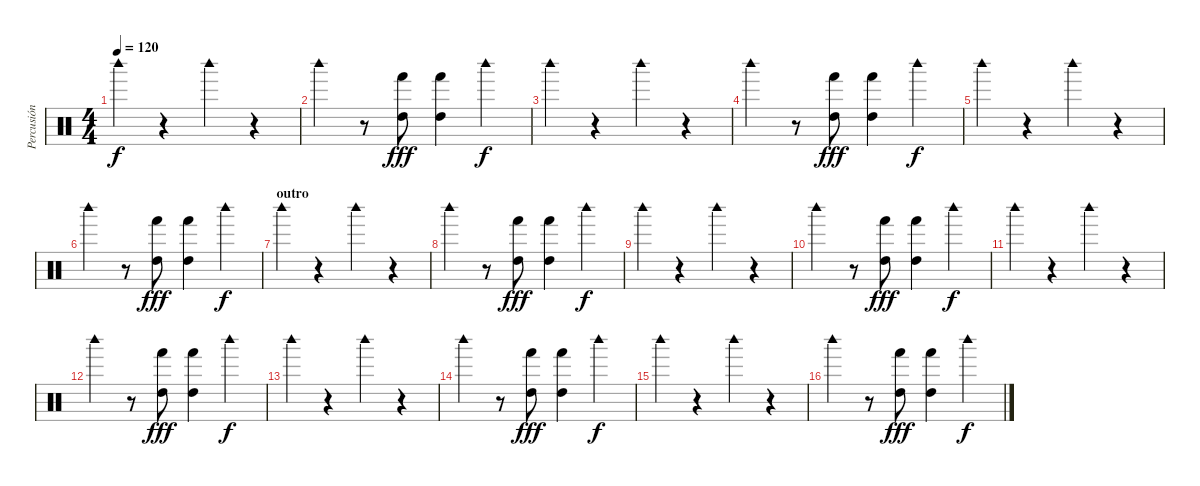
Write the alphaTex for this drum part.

\track ("Percusión" "Percusión") {instrument percussion}
\staff {score}
\articulation defaults
\ts (4 4)
\tempo 120
\clef neutral
\ks c "Woodblock high (hit)".4{dy f}
r.4 "Woodblock high (hit)".4 r.4 |
"Woodblock high (hit)".4 r.8 ("Hand (hit)" "High Tom (hit)").8{dy fff} ("Hand (hit)" "High Tom (hit)").4 "Woodblock high (hit)".4{dy f} |
"Woodblock high (hit)".4 r.4 "Woodblock high (hit)".4 r.4 |
"Woodblock high (hit)".4 r.8 ("Hand (hit)" "High Tom (hit)").8{dy fff} ("Hand (hit)" "High Tom (hit)").4 "Woodblock high (hit)".4{dy f} |
"Woodblock high (hit)".4 r.4 "Woodblock high (hit)".4 r.4 |
"Woodblock high (hit)".4 r.8 ("Hand (hit)" "High Tom (hit)").8{dy fff} ("Hand (hit)" "High Tom (hit)").4 "Woodblock high (hit)".4{dy f} |
\section ("" "outro")
"Woodblock high (hit)".4 r.4 "Woodblock high (hit)".4 r.4 |
"Woodblock high (hit)".4 r.8 ("Hand (hit)" "High Tom (hit)").8{dy fff} ("Hand (hit)" "High Tom (hit)").4 "Woodblock high (hit)".4{dy f} |
"Woodblock high (hit)".4 r.4 "Woodblock high (hit)".4 r.4 |
"Woodblock high (hit)".4 r.8 ("Hand (hit)" "High Tom (hit)").8{dy fff} ("Hand (hit)" "High Tom (hit)").4 "Woodblock high (hit)".4{dy f} |
"Woodblock high (hit)".4 r.4 "Woodblock high (hit)".4 r.4 |
"Woodblock high (hit)".4 r.8 ("Hand (hit)" "High Tom (hit)").8{dy fff} ("Hand (hit)" "High Tom (hit)").4 "Woodblock high (hit)".4{dy f} |
"Woodblock high (hit)".4 r.4 "Woodblock high (hit)".4 r.4 |
"Woodblock high (hit)".4 r.8 ("Hand (hit)" "High Tom (hit)").8{dy fff} ("Hand (hit)" "High Tom (hit)").4 "Woodblock high (hit)".4{dy f} |
"Woodblock high (hit)".4 r.4 "Woodblock high (hit)".4 r.4 |
"Woodblock high (hit)".4 r.8 ("Hand (hit)" "High Tom (hit)").8{dy fff} ("Hand (hit)" "High Tom (hit)").4 "Woodblock high (hit)".4{dy f}
